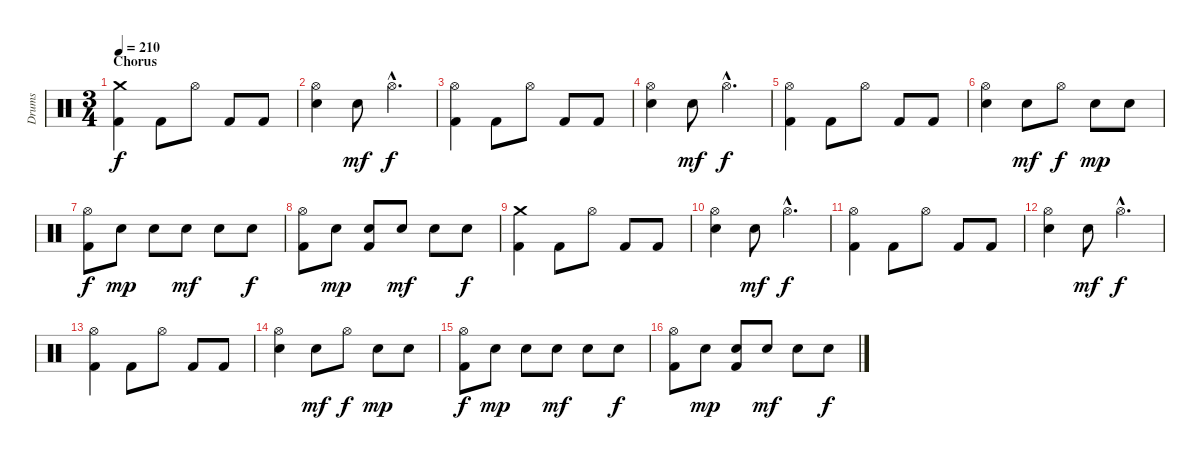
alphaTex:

\track ("Drums" "Drums") {instrument percussion}
\staff {score}
\articulation defaults
\ts (3 4)
\section ("" "Chorus")
\tempo 210
\clef neutral
\ks c
("Crash medium (hit)" "Kick (hit) 2").4{dy f} "Kick (hit) 2".8 "Hi-Hat (open)".8 "Kick (hit) 2".8 "Kick (hit) 2".8 |
("Hi-Hat (open)" "Electric Snare (hit)").4 "Electric Snare (hit)".8{dy mf} "Hi-Hat (open)"{hac}.4{d dy f} |
("Hi-Hat (open)" "Kick (hit) 2").4 "Kick (hit) 2".8 "Hi-Hat (open)".8 "Kick (hit) 2".8 "Kick (hit) 2".8 |
("Hi-Hat (open)" "Electric Snare (hit)").4 "Electric Snare (hit)".8{dy mf} "Hi-Hat (open)"{hac}.4{d dy f} |
("Hi-Hat (open)" "Kick (hit) 2").4 "Kick (hit) 2".8 "Hi-Hat (open)".8 "Kick (hit) 2".8 "Kick (hit) 2".8 |
("Hi-Hat (open)" "Electric Snare (hit)").4 "Electric Snare (hit)".8{dy mf} "Hi-Hat (open)".8{dy f} "Electric Snare (hit)".8{dy mp} "Electric Snare (hit)".8 |
("Hi-Hat (open)" "Kick (hit) 2").8{dy f} "Electric Snare (hit)".8{dy mp} "Electric Snare (hit)".8 "Electric Snare (hit)".8{dy mf} "Electric Snare (hit)".8 "Electric Snare (hit)".8{dy f} |
("Hi-Hat (open)" "Kick (hit) 2").8 "Electric Snare (hit)".8{dy mp} ("Electric Snare (hit)" "Kick (hit) 2").8 "Electric Snare (hit)".8{dy mf} "Electric Snare (hit)".8 "Electric Snare (hit)".8{dy f} |
("Crash medium (hit)" "Kick (hit) 2").4 "Kick (hit) 2".8 "Hi-Hat (open)".8 "Kick (hit) 2".8 "Kick (hit) 2".8 |
("Hi-Hat (open)" "Electric Snare (hit)").4 "Electric Snare (hit)".8{dy mf} "Hi-Hat (open)"{hac}.4{d dy f} |
("Hi-Hat (open)" "Kick (hit) 2").4 "Kick (hit) 2".8 "Hi-Hat (open)".8 "Kick (hit) 2".8 "Kick (hit) 2".8 |
("Hi-Hat (open)" "Electric Snare (hit)").4 "Electric Snare (hit)".8{dy mf} "Hi-Hat (open)"{hac}.4{d dy f} |
("Hi-Hat (open)" "Kick (hit) 2").4 "Kick (hit) 2".8 "Hi-Hat (open)".8 "Kick (hit) 2".8 "Kick (hit) 2".8 |
("Hi-Hat (open)" "Electric Snare (hit)").4 "Electric Snare (hit)".8{dy mf} "Hi-Hat (open)".8{dy f} "Electric Snare (hit)".8{dy mp} "Electric Snare (hit)".8 |
("Hi-Hat (open)" "Kick (hit) 2").8{dy f} "Electric Snare (hit)".8{dy mp} "Electric Snare (hit)".8 "Electric Snare (hit)".8{dy mf} "Electric Snare (hit)".8 "Electric Snare (hit)".8{dy f} |
("Hi-Hat (open)" "Kick (hit) 2").8 "Electric Snare (hit)".8{dy mp} ("Electric Snare (hit)" "Kick (hit) 2").8 "Electric Snare (hit)".8{dy mf} "Electric Snare (hit)".8 "Electric Snare (hit)".8{dy f}
